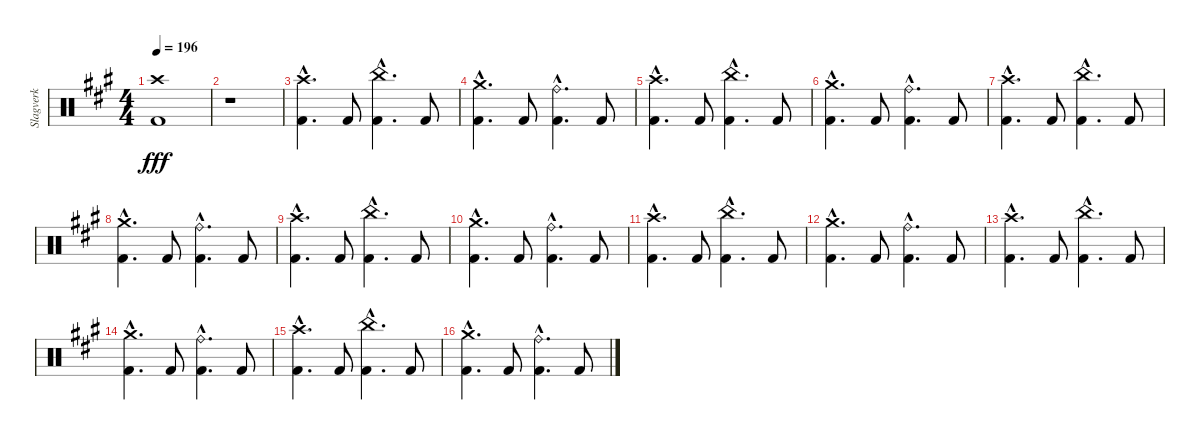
\track ("Slagverk" "Slagverk") {instrument percussion}
\staff {score}
\articulation defaults
\ts (4 4)
\tempo 196
\clef neutral
\ks a
("Crash high (hit)" "Kick (hit) 2").1{dy fff} |
r.1 |
("Crash high (hit)"{hac} "Kick (hit) 2"{hac}).4{d} "Kick (hit) 2".8 ("China (hit)"{hac} "Kick (hit) 2"{hac}).4{d} "Kick (hit) 2".8 |
("Crash medium (hit)"{hac} "Kick (hit) 2"{hac}).4{d} "Kick (hit) 2".8 ("Ride (bell)"{hac} "Kick (hit) 2"{hac}).4{d} "Kick (hit) 2".8 |
("Crash high (hit)"{hac} "Kick (hit) 2"{hac}).4{d} "Kick (hit) 2".8 ("China (hit)"{hac} "Kick (hit) 2"{hac}).4{d} "Kick (hit) 2".8 |
("Crash medium (hit)"{hac} "Kick (hit) 2"{hac}).4{d} "Kick (hit) 2".8 ("Ride (bell)"{hac} "Kick (hit) 2"{hac}).4{d} "Kick (hit) 2".8 |
("Crash high (hit)"{hac} "Kick (hit) 2"{hac}).4{d} "Kick (hit) 2".8 ("China (hit)"{hac} "Kick (hit) 2"{hac}).4{d} "Kick (hit) 2".8 |
("Crash medium (hit)"{hac} "Kick (hit) 2"{hac}).4{d} "Kick (hit) 2".8 ("Ride (bell)"{hac} "Kick (hit) 2"{hac}).4{d} "Kick (hit) 2".8 |
("Crash high (hit)"{hac} "Kick (hit) 2"{hac}).4{d} "Kick (hit) 2".8 ("China (hit)"{hac} "Kick (hit) 2"{hac}).4{d} "Kick (hit) 2".8 |
("Crash medium (hit)"{hac} "Kick (hit) 2"{hac}).4{d} "Kick (hit) 2".8 ("Ride (bell)"{hac} "Kick (hit) 2"{hac}).4{d} "Kick (hit) 2".8 |
("Crash high (hit)"{hac} "Kick (hit) 2"{hac}).4{d} "Kick (hit) 2".8 ("China (hit)"{hac} "Kick (hit) 2"{hac}).4{d} "Kick (hit) 2".8 |
("Crash medium (hit)"{hac} "Kick (hit) 2"{hac}).4{d} "Kick (hit) 2".8 ("Ride (bell)"{hac} "Kick (hit) 2"{hac}).4{d} "Kick (hit) 2".8 |
("Crash high (hit)"{hac} "Kick (hit) 2"{hac}).4{d} "Kick (hit) 2".8 ("China (hit)"{hac} "Kick (hit) 2"{hac}).4{d} "Kick (hit) 2".8 |
("Crash medium (hit)"{hac} "Kick (hit) 2"{hac}).4{d} "Kick (hit) 2".8 ("Ride (bell)"{hac} "Kick (hit) 2"{hac}).4{d} "Kick (hit) 2".8 |
("Crash high (hit)"{hac} "Kick (hit) 2"{hac}).4{d} "Kick (hit) 2".8 ("China (hit)"{hac} "Kick (hit) 2"{hac}).4{d} "Kick (hit) 2".8 |
("Crash medium (hit)"{hac} "Kick (hit) 2"{hac}).4{d} "Kick (hit) 2".8 ("Ride (bell)"{hac} "Kick (hit) 2"{hac}).4{d} "Kick (hit) 2".8
